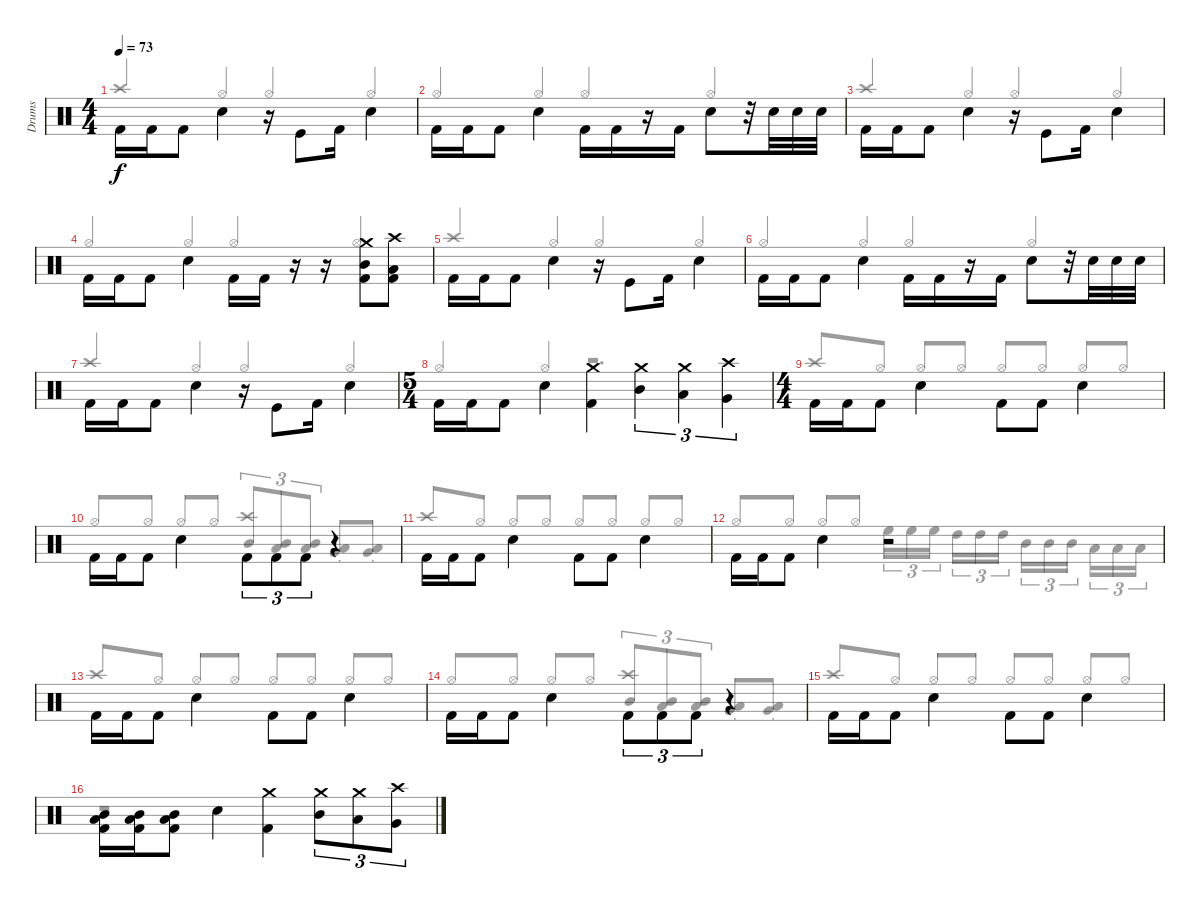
\track ("Drums" "Drums") {instrument percussion}
\staff {score}
\articulation defaults
\voice
\ts (4 4)
\tempo 73
\clef neutral
\ks c "Kick (hit) 2".16{dy f beam Down} "Kick (hit) 2".16{beam Down} "Kick (hit) 2".8{beam Down} "Snare (hit) 2".4{beam Down}
r.16 "Kick (hit)".8{beam Down} "Kick (hit) 2".16{beam Down} "Snare (hit) 2".4{beam Down} |
"Kick (hit) 2".16{beam Down} "Kick (hit) 2".16{beam Down} "Kick (hit) 2".8{beam Down} "Snare (hit) 2".4{beam Down} "Kick (hit) 2".16{beam Down} "Kick (hit) 2".16{beam Down} r.16 "Kick (hit) 2".16{beam Down} "Snare (hit) 2".8{beam Down} r.32 "Snare (hit) 2".32{beam Down} "Snare (hit) 2".32{beam Down} "Snare (hit) 2".32{beam Down} |
"Kick (hit) 2".16{beam Down} "Kick (hit) 2".16{beam Down} "Kick (hit) 2".8{beam Down} "Snare (hit) 2".4{beam Down} r.16 "Kick (hit)".8{beam Down} "Kick (hit) 2".16{beam Down} "Snare (hit) 2".4{beam Down} |
"Kick (hit) 2".16{beam Down} "Kick (hit) 2".16{beam Down} "Kick (hit) 2".8{beam Down} "Snare (hit) 2".4{beam Down} "Kick (hit) 2".16{beam Down} "Kick (hit) 2".16{beam Down} r.16 r.16 ("Crash medium (hit)" "Mid Tom (hit)" "Kick (hit) 2").8{beam Down} ("Crash high (hit)" "Low Tom (hit)" "Kick (hit) 2").8{beam Down} |
"Kick (hit) 2".16{beam Down} "Kick (hit) 2".16{beam Down} "Kick (hit) 2".8{beam Down} "Snare (hit) 2".4{beam Down} r.16 "Kick (hit)".8{beam Down} "Kick (hit) 2".16{beam Down} "Snare (hit) 2".4{beam Down} |
"Kick (hit) 2".16{beam Down} "Kick (hit) 2".16{beam Down} "Kick (hit) 2".8{beam Down} "Snare (hit) 2".4{beam Down} "Kick (hit) 2".16{beam Down} "Kick (hit) 2".16{beam Down} r.16 "Kick (hit) 2".16{beam Down} "Snare (hit) 2".8{beam Down} r.32 "Snare (hit) 2".32{beam Down} "Snare (hit) 2".32{beam Down} "Snare (hit) 2".32{beam Down} |
"Kick (hit) 2".16{beam Down} "Kick (hit) 2".16{beam Down} "Kick (hit) 2".8{beam Down} "Snare (hit) 2".4{beam Down} r.16 "Kick (hit)".8{beam Down} "Kick (hit) 2".16{beam Down} "Snare (hit) 2".4{beam Down} |
\ts (5 4)
"Kick (hit) 2".16{beam Down} "Kick (hit) 2".16{beam Down} "Kick (hit) 2".8{beam Down} "Snare (hit) 2".4{beam Down} ("Crash medium (hit)" "Kick (hit) 2").4{beam Down} ("Mid Tom (hit)" "Crash medium (hit)").4{tu (3 2) beam Down} ("Low Tom (hit)" "Crash medium (hit)").4{tu (3 2) beam Down} ("Very Low Tom (hit)" "Crash high (hit)").4{tu (3 2) beam Down} |
\ts (4 4)
"Kick (hit) 2".16{beam Down} "Kick (hit) 2".16{beam Down} "Kick (hit) 2".8{beam Down} "Snare (hit) 2".4{beam Down} "Kick (hit) 2".8{beam Down} "Kick (hit) 2".8{beam Down} "Snare (hit) 2".4{beam Down} |
"Kick (hit) 2".16{beam Down} "Kick (hit) 2".16{beam Down} "Kick (hit) 2".8{beam Down} "Snare (hit) 2".4{beam Down} "Kick (hit) 2".8{tu (3 2) beam Down} "Kick (hit) 2".8{tu (3 2) beam Down} "Kick (hit) 2".8{tu (3 2) beam Down} r.4 |
"Kick (hit) 2".16{beam Down} "Kick (hit) 2".16{beam Down} "Kick (hit) 2".8{beam Down} "Snare (hit) 2".4{beam Down} "Kick (hit) 2".8{beam Down} "Kick (hit) 2".8{beam Down} "Snare (hit) 2".4{beam Down} |
"Kick (hit) 2".16{beam Down} "Kick (hit) 2".16{beam Down} "Kick (hit) 2".8{beam Down} "Snare (hit) 2".4{beam Down} r.2 |
"Kick (hit) 2".16{beam Down} "Kick (hit) 2".16{beam Down} "Kick (hit) 2".8{beam Down} "Snare (hit) 2".4{beam Down} "Kick (hit) 2".8{beam Down} "Kick (hit) 2".8{beam Down} "Snare (hit) 2".4{beam Down} |
"Kick (hit) 2".16{beam Down} "Kick (hit) 2".16{beam Down} "Kick (hit) 2".8{beam Down} "Snare (hit) 2".4{beam Down} "Kick (hit) 2".8{tu (3 2) beam Down} "Kick (hit) 2".8{tu (3 2) beam Down} "Kick (hit) 2".8{tu (3 2) beam Down} r.4 |
"Kick (hit) 2".16{beam Down} "Kick (hit) 2".16{beam Down} "Kick (hit) 2".8{beam Down} "Snare (hit) 2".4{beam Down} "Kick (hit) 2".8{beam Down} "Kick (hit) 2".8{beam Down} "Snare (hit) 2".4{beam Down} |
("Kick (hit) 2" "Mid Tom (hit)" "Low Tom (hit)").16{beam Down} ("Kick (hit) 2" "Mid Tom (hit)" "Low Tom (hit)").16{beam Down} ("Kick (hit) 2" "Mid Tom (hit)" "Low Tom (hit)").8{beam Down} "Snare (hit) 2".4{beam Down} ("Crash medium (hit)" "Kick (hit) 2").4{beam Down} ("Mid Tom (hit)" "Crash medium (hit)").8{tu (3 2) beam Down} ("Low Tom (hit)" "Crash medium (hit)").8{tu (3 2) beam Down} ("Very Low Tom (hit)" "Crash high (hit)").8{tu (3 2) beam Down}
\voice
\clef neutral
\ottava regular
\simile none
\ks c "Crash high (hit)".4{dy f beam Up} "Hi-Hat (open)".4{beam Up} "Hi-Hat (open)".4{beam Up} "Hi-Hat (open)".4{beam Up}
|
"Hi-Hat (open)".4{beam Up} "Hi-Hat (open)".4{beam Up} "Hi-Hat (open)".4{beam Up} "Hi-Hat (open)".4{beam Up} |
"Crash high (hit)".4{beam Up} "Hi-Hat (open)".4{beam Up} "Hi-Hat (open)".4{beam Up} "Hi-Hat (open)".4{beam Up} |
"Hi-Hat (open)".4{beam Up} "Hi-Hat (open)".4{beam Up} "Hi-Hat (open)".4{beam Up} "Hi-Hat (open)".4{beam Up} |
"Crash high (hit)".4{beam Up} "Hi-Hat (open)".4{beam Up} "Hi-Hat (open)".4{beam Up} "Hi-Hat (open)".4{beam Up} |
"Hi-Hat (open)".4{beam Up} "Hi-Hat (open)".4{beam Up} "Hi-Hat (open)".4{beam Up} "Hi-Hat (open)".4{beam Up} |
"Crash high (hit)".4{beam Up} "Hi-Hat (open)".4{beam Up} "Hi-Hat (open)".4{beam Up} "Hi-Hat (open)".4{beam Up} |
"Hi-Hat (open)".4{beam Up} "Hi-Hat (open)".4{beam Up} r.2{d} |
"Crash high (hit)".8{beam Up} "Hi-Hat (open)".8{beam Up} "Hi-Hat (open)".8{beam Up} "Hi-Hat (open)".8{beam Up} "Hi-Hat (open)".8{beam Up} "Hi-Hat (open)".8{beam Up} "Hi-Hat (open)".8{beam Up} "Hi-Hat (open)".8{beam Up} |
"Hi-Hat (open)".8{beam Up} "Hi-Hat (open)".8{beam Up} "Hi-Hat (open)".8{beam Up} "Hi-Hat (open)".8{beam Up} ("Crash high (hit)" "Mid Tom (hit)").8{tu (3 2) beam Up} ("Mid Tom (hit)" "Low Tom (hit)").8{tu (3 2) beam Up} ("Mid Tom (hit)" "Low Tom (hit)").8{tu (3 2) beam Up} ("Very Low Tom (hit)"{st} "Low Tom (hit)"{st}).8{beam Up} ("Low Tom (hit)"{st} "Very Low Tom (hit)"{st}).8{beam Up} |
"Crash high (hit)".8{beam Up} "Hi-Hat (open)".8{beam Up} "Hi-Hat (open)".8{beam Up} "Hi-Hat (open)".8{beam Up} "Hi-Hat (open)".8{beam Up} "Hi-Hat (open)".8{beam Up} "Hi-Hat (open)".8{beam Up} "Hi-Hat (open)".8{beam Up} |
"Hi-Hat (open)".8{beam Up} "Hi-Hat (open)".8{beam Up} "Hi-Hat (open)".8{beam Up} "Hi-Hat (open)".8{beam Up} "High Floor Tom (hit)".16{tu (3 2) beam Down} "High Floor Tom (hit)".16{tu (3 2) beam Down} "High Floor Tom (hit)".16{tu (3 2) beam Down beam splitsecondary} "High Tom (hit)".16{tu (3 2) beam Down} "High Tom (hit)".16{tu (3 2) beam Down} "High Tom (hit)".16{tu (3 2) beam Down} "Mid Tom (hit)".16{tu (3 2) beam Down} "Mid Tom (hit)".16{tu (3 2) beam Down} "Mid Tom (hit)".16{tu (3 2) beam Down beam splitsecondary} "Low Tom (hit)".16{tu (3 2) beam Down} "Low Tom (hit)".16{tu (3 2) beam Down} "Low Tom (hit)".16{tu (3 2) beam Down} |
"Crash high (hit)".8{beam Up} "Hi-Hat (open)".8{beam Up} "Hi-Hat (open)".8{beam Up} "Hi-Hat (open)".8{beam Up} "Hi-Hat (open)".8{beam Up} "Hi-Hat (open)".8{beam Up} "Hi-Hat (open)".8{beam Up} "Hi-Hat (open)".8{beam Up} |
"Hi-Hat (open)".8{beam Up} "Hi-Hat (open)".8{beam Up} "Hi-Hat (open)".8{beam Up} "Hi-Hat (open)".8{beam Up} ("Crash high (hit)" "Mid Tom (hit)").8{tu (3 2) beam Up} ("Mid Tom (hit)" "Low Tom (hit)").8{tu (3 2) beam Up} ("Mid Tom (hit)" "Low Tom (hit)").8{tu (3 2) beam Up} ("Very Low Tom (hit)"{st} "Low Tom (hit)"{st}).8{beam Up} ("Low Tom (hit)"{st} "Very Low Tom (hit)"{st}).8{beam Up} |
"Crash high (hit)".8{beam Up} "Hi-Hat (open)".8{beam Up} "Hi-Hat (open)".8{beam Up} "Hi-Hat (open)".8{beam Up} "Hi-Hat (open)".8{beam Up} "Hi-Hat (open)".8{beam Up} "Hi-Hat (open)".8{beam Up} "Hi-Hat (open)".8{beam Up} |
r.1
